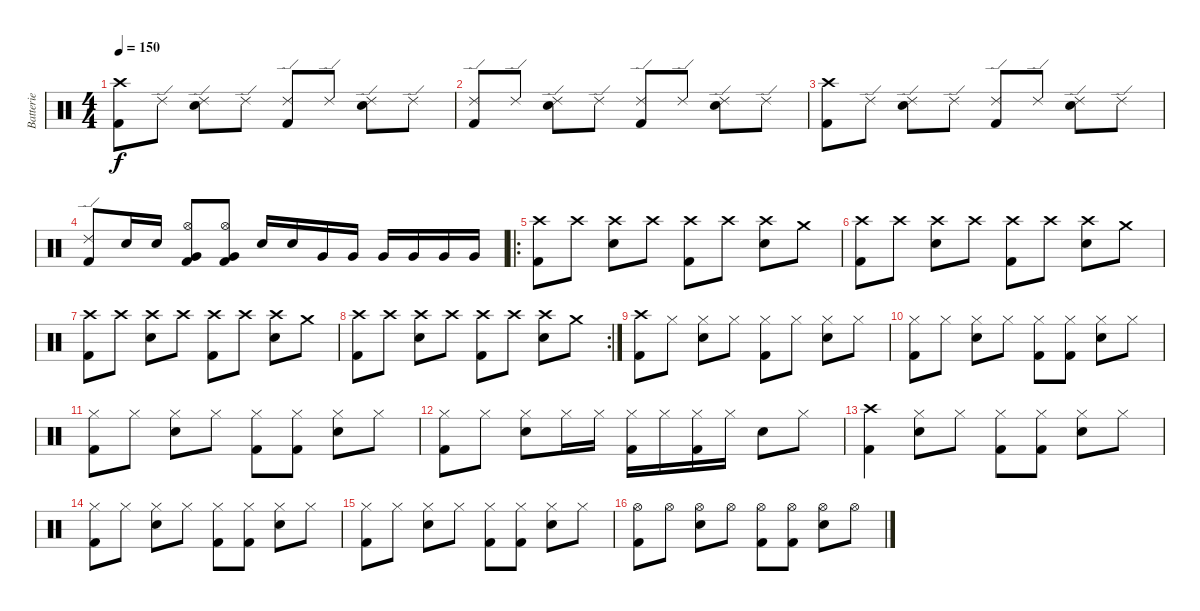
\track ("Batterie" "Batterie") {instrument percussion}
\staff {score}
\articulation defaults
\ts (4 4)
\tempo 150
\clef neutral
\ks c
("Crash high (hit)" "Kick (hit) 2").8{dy f} "Ride (edge) 2".8 ("Ride (edge) 2" "Snare (hit) 2").8 "Ride (edge) 2".8 ("Ride (edge) 2" "Kick (hit) 2").8 "Ride (edge) 2".8 ("Ride (edge) 2" "Snare (hit) 2").8 "Ride (edge) 2".8 |
("Ride (edge) 2" "Kick (hit) 2").8 "Ride (edge) 2".8 ("Ride (edge) 2" "Snare (hit) 2").8 "Ride (edge) 2".8 ("Ride (edge) 2" "Kick (hit) 2").8 "Ride (edge) 2".8 ("Ride (edge) 2" "Snare (hit) 2").8 "Ride (edge) 2".8 |
("Crash high (hit)" "Kick (hit) 2").8 "Ride (edge) 2".8 ("Ride (edge) 2" "Snare (hit) 2").8 "Ride (edge) 2".8 ("Ride (edge) 2" "Kick (hit) 2").8 "Ride (edge) 2".8 ("Ride (edge) 2" "Snare (hit) 2").8 "Ride (edge) 2".8 |
("Ride (edge) 2" "Kick (hit) 2").8 "Snare (hit) 2".16 "Snare (hit) 2".16 ("Hi-Hat (open)" "Very Low Tom (hit)" "Kick (hit) 2").8 ("Hi-Hat (open)" "Very Low Tom (hit)" "Kick (hit) 2").8 "Snare (hit) 2".16 "Snare (hit) 2".16 "Very Low Tom (hit)".16 "Very Low Tom (hit)".16 "Very Low Tom (hit)".16 "Very Low Tom (hit)".16 "Very Low Tom (hit)".16 "Very Low Tom (hit)".16 |
\ro
("Crash high (hit)" "Kick (hit) 2").8 "Crash high (hit)".8 ("Crash high (hit)" "Snare (hit) 2").8 "Crash high (hit)".8 ("Crash high (hit)" "Kick (hit) 2").8 "Crash high (hit)".8 ("Crash high (hit)" "Snare (hit) 2").8 "Crash medium (hit)".8 |
("Crash high (hit)" "Kick (hit) 2").8 "Crash high (hit)".8 ("Crash high (hit)" "Snare (hit) 2").8 "Crash high (hit)".8 ("Crash high (hit)" "Kick (hit) 2").8 "Crash high (hit)".8 ("Crash high (hit)" "Snare (hit) 2").8 "Crash medium (hit)".8 |
("Crash high (hit)" "Kick (hit) 2").8 "Crash high (hit)".8 ("Crash high (hit)" "Snare (hit) 2").8 "Crash high (hit)".8 ("Crash high (hit)" "Kick (hit) 2").8 "Crash high (hit)".8 ("Crash high (hit)" "Snare (hit) 2").8 "Crash medium (hit)".8 |
\rc 2
("Crash high (hit)" "Kick (hit) 2").8 "Crash high (hit)".8 ("Crash high (hit)" "Snare (hit) 2").8 "Crash high (hit)".8 ("Crash high (hit)" "Kick (hit) 2").8 "Crash high (hit)".8 ("Crash high (hit)" "Snare (hit) 2").8 "Crash medium (hit)".8 |
("Crash high (hit)" "Kick (hit) 2").8 "Hi-Hat (closed)".8 ("Hi-Hat (closed)" "Snare (hit) 2").8 "Hi-Hat (closed)".8 ("Hi-Hat (closed)" "Kick (hit) 2").8 "Hi-Hat (closed)".8 ("Hi-Hat (closed)" "Snare (hit) 2").8 "Hi-Hat (closed)".8 |
("Hi-Hat (closed)" "Kick (hit) 2").8 "Hi-Hat (closed)".8 ("Hi-Hat (closed)" "Snare (hit) 2").8 "Hi-Hat (closed)".8 ("Hi-Hat (closed)" "Kick (hit) 2").8 ("Hi-Hat (closed)" "Kick (hit) 2").8 ("Hi-Hat (closed)" "Snare (hit) 2").8 "Hi-Hat (closed)".8 |
("Hi-Hat (closed)" "Kick (hit) 2").8 "Hi-Hat (closed)".8 ("Hi-Hat (closed)" "Snare (hit) 2").8 "Hi-Hat (closed)".8 ("Hi-Hat (closed)" "Kick (hit) 2").8 ("Hi-Hat (closed)" "Kick (hit) 2").8 ("Hi-Hat (closed)" "Snare (hit) 2").8 "Hi-Hat (closed)".8 |
("Hi-Hat (closed)" "Kick (hit) 2").8 "Hi-Hat (closed)".8 ("Hi-Hat (closed)" "Snare (hit) 2").8 "Hi-Hat (closed)".16 "Hi-Hat (closed)".16 ("Hi-Hat (closed)" "Kick (hit) 2").16 "Hi-Hat (closed)".16 ("Hi-Hat (closed)" "Kick (hit) 2").16 "Hi-Hat (closed)".16 "Snare (hit) 2".8 "Hi-Hat (closed)".8 |
("Crash high (hit)" "Kick (hit) 2").4 ("Hi-Hat (closed)" "Snare (hit) 2").8 "Hi-Hat (closed)".8 ("Hi-Hat (closed)" "Kick (hit) 2").8 ("Hi-Hat (closed)" "Kick (hit) 2").8 ("Hi-Hat (closed)" "Snare (hit) 2").8 "Hi-Hat (closed)".8 |
("Hi-Hat (closed)" "Kick (hit) 2").8 "Hi-Hat (closed)".8 ("Hi-Hat (closed)" "Snare (hit) 2").8 "Hi-Hat (closed)".8 ("Hi-Hat (closed)" "Kick (hit) 2").8 ("Hi-Hat (closed)" "Kick (hit) 2").8 ("Hi-Hat (closed)" "Snare (hit) 2").8 "Hi-Hat (closed)".8 |
("Hi-Hat (closed)" "Kick (hit) 2").8 "Hi-Hat (closed)".8 ("Hi-Hat (closed)" "Snare (hit) 2").8 "Hi-Hat (closed)".8 ("Hi-Hat (closed)" "Kick (hit) 2").8 ("Hi-Hat (closed)" "Kick (hit) 2").8 ("Hi-Hat (closed)" "Snare (hit) 2").8 "Hi-Hat (closed)".8 |
("Hi-Hat (open)" "Kick (hit) 2").8 "Hi-Hat (open)".8 ("Hi-Hat (open)" "Snare (hit) 2").8 "Hi-Hat (open)".8 ("Hi-Hat (open)" "Kick (hit) 2").8 ("Hi-Hat (open)" "Kick (hit) 2").8 ("Hi-Hat (open)" "Snare (hit) 2").8 "Hi-Hat (open)".8
